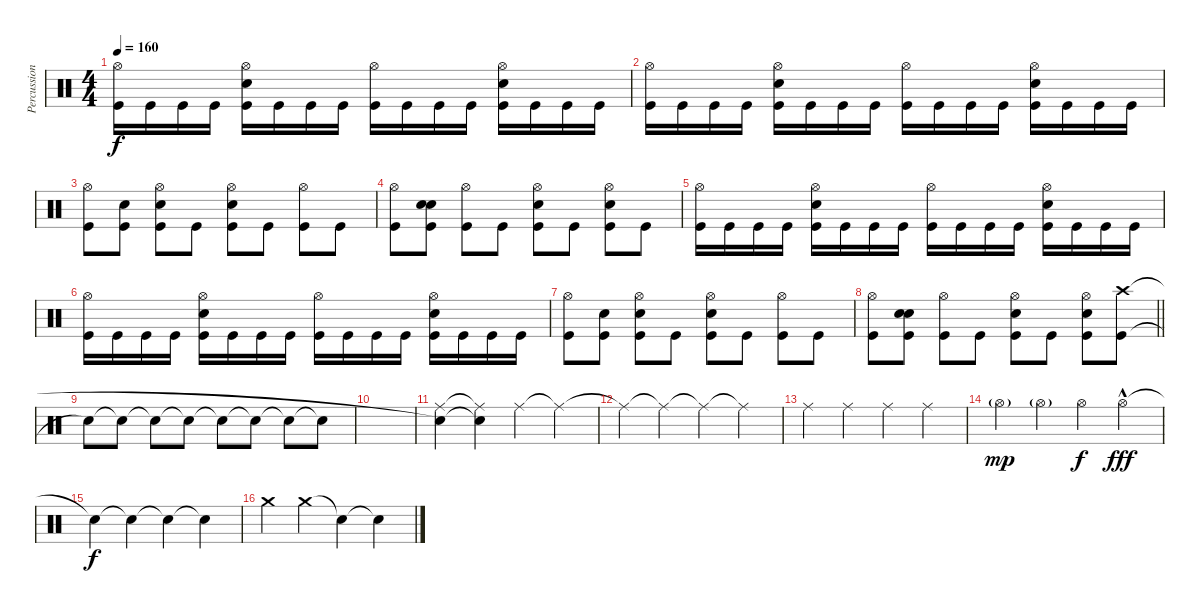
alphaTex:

\track ("Percussion" "Percussion") {instrument percussion}
\staff {score}
\articulation defaults
\ts (4 4)
\tempo 160
\clef neutral
\ks c
("Hi-Hat (open)" "Kick (hit)").16{dy f} "Kick (hit)".16 "Kick (hit)".16 "Kick (hit)".16 ("Hi-Hat (open)" "Snare (hit) 2" "Kick (hit)").16 "Kick (hit)".16 "Kick (hit)".16 "Kick (hit)".16 ("Hi-Hat (open)" "Kick (hit)").16 "Kick (hit)".16 "Kick (hit)".16 "Kick (hit)".16 ("Hi-Hat (open)" "Snare (hit) 2" "Kick (hit)").16 "Kick (hit)".16 "Kick (hit)".16 "Kick (hit)".16 |
("Hi-Hat (open)" "Kick (hit)").16 "Kick (hit)".16 "Kick (hit)".16 "Kick (hit)".16 ("Hi-Hat (open)" "Snare (hit) 2" "Kick (hit)").16 "Kick (hit)".16 "Kick (hit)".16 "Kick (hit)".16 ("Hi-Hat (open)" "Kick (hit)").16 "Kick (hit)".16 "Kick (hit)".16 "Kick (hit)".16 ("Hi-Hat (open)" "Snare (hit) 2" "Kick (hit)").16 "Kick (hit)".16 "Kick (hit)".16 "Kick (hit)".16 |
("Kick (hit)" "Hi-Hat (open)").8 ("Kick (hit)" "Snare (hit)").8 ("Kick (hit)" "Snare (hit) 2" "Hi-Hat (open)").8 "Kick (hit)".8 ("Kick (hit)" "Snare (hit) 2" "Hi-Hat (open)").8 "Kick (hit)".8 ("Kick (hit)" "Hi-Hat (open)").8 "Kick (hit)".8 |
("Kick (hit)" "Hi-Hat (open)").8 ("Kick (hit)" "Snare (hit) 2" "Snare (hit)").8 ("Kick (hit)" "Hi-Hat (open)").8 "Kick (hit)".8 ("Kick (hit)" "Snare (hit) 2" "Hi-Hat (open)").8 "Kick (hit)".8 ("Kick (hit)" "Snare (hit) 2" "Hi-Hat (open)").8 "Kick (hit)".8 |
("Hi-Hat (open)" "Kick (hit)").16 "Kick (hit)".16 "Kick (hit)".16 "Kick (hit)".16 ("Hi-Hat (open)" "Snare (hit) 2" "Kick (hit)").16 "Kick (hit)".16 "Kick (hit)".16 "Kick (hit)".16 ("Hi-Hat (open)" "Kick (hit)").16 "Kick (hit)".16 "Kick (hit)".16 "Kick (hit)".16 ("Hi-Hat (open)" "Snare (hit) 2" "Kick (hit)").16 "Kick (hit)".16 "Kick (hit)".16 "Kick (hit)".16 |
("Hi-Hat (open)" "Kick (hit)").16 "Kick (hit)".16 "Kick (hit)".16 "Kick (hit)".16 ("Hi-Hat (open)" "Snare (hit) 2" "Kick (hit)").16 "Kick (hit)".16 "Kick (hit)".16 "Kick (hit)".16 ("Hi-Hat (open)" "Kick (hit)").16 "Kick (hit)".16 "Kick (hit)".16 "Kick (hit)".16 ("Hi-Hat (open)" "Snare (hit) 2" "Kick (hit)").16 "Kick (hit)".16 "Kick (hit)".16 "Kick (hit)".16 |
("Kick (hit)" "Hi-Hat (open)").8 ("Kick (hit)" "Snare (hit)").8 ("Kick (hit)" "Snare (hit) 2" "Hi-Hat (open)").8 "Kick (hit)".8 ("Kick (hit)" "Snare (hit) 2" "Hi-Hat (open)").8 "Kick (hit)".8 ("Kick (hit)" "Hi-Hat (open)").8 "Kick (hit)".8 |
\barLineRight lightlight
("Kick (hit)" "Hi-Hat (open)").8 ("Kick (hit)" "Snare (hit) 2" "Snare (hit)").8 ("Kick (hit)" "Hi-Hat (open)").8 "Kick (hit)".8 ("Kick (hit)" "Snare (hit) 2" "Hi-Hat (open)").8 "Kick (hit)".8 ("Kick (hit)" "Snare (hit) 2" "Hi-Hat (open)").8 ("Kick (hit)" "Crash high (hit)").8 |
\section ("" "")
"Snare (hit)"{t}.8 "Snare (hit)"{t}.8 "Snare (hit)"{t}.8 "Snare (hit)"{t}.8 "Snare (hit)"{t}.8 "Snare (hit)"{t}.8 "Snare (hit)"{t}.8 "Snare (hit)"{t}.8 |
|
("Ride (middle)" "Snare (hit)"{t}).4 ("Ride (middle)"{t} "Snare (hit)"{t}).4 "Ride (middle)".4 "Ride (middle)"{t}.4 |
"Ride (middle)"{t}.4 "Ride (middle)"{t}.4 "Ride (middle)"{t}.4 "Ride (middle)"{t}.4 |
"Ride (middle)".4 "Ride (middle)".4 "Ride (middle)".4 "Ride (middle)".4 |
"Hi-Hat (open)"{g}.4{dy mp} "Hi-Hat (open)"{g}.4 "Hi-Hat (open)".4{dy f} "Hi-Hat (open)"{hac}.4{dy fff} |
"Snare (hit)"{t}.4{dy f} "Snare (hit)"{t}.4 "Snare (hit)"{t}.4 "Snare (hit)"{t}.4 |
"Crash medium (hit)".4 "Crash medium (hit)".4 "Snare (hit)"{t}.4 "Snare (hit)"{t}.4
